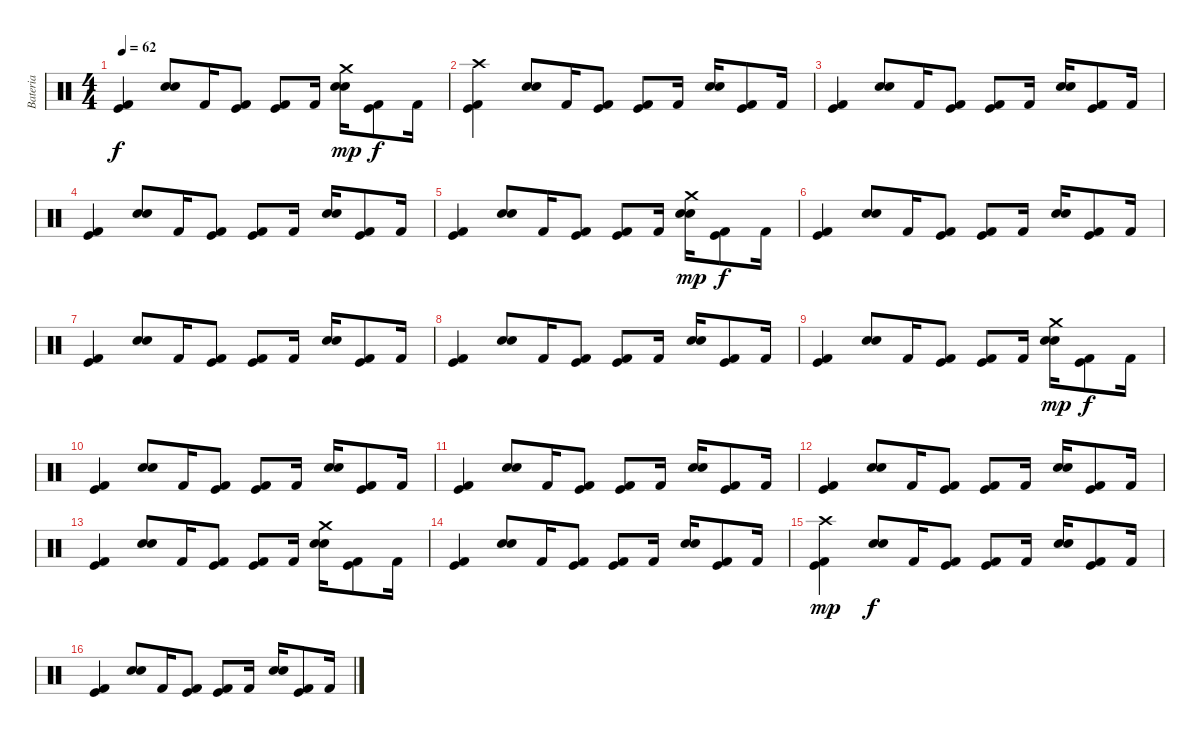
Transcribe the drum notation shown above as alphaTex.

\track ("Bateria" "Bateria") {instrument percussion}
\staff {score}
\articulation defaults
\ts (4 4)
\tempo 62
\clef neutral
\ks c
("Kick (hit)" "Kick (hit) 2").4{dy f} ("Snare (hit) 2" "Electric Snare (hit)").8 "Kick (hit) 2".16 ("Kick (hit)" "Kick (hit) 2").8 ("Kick (hit)" "Kick (hit) 2").8 "Kick (hit) 2".16 ("Crash medium (hit)" "Snare (hit) 2" "Electric Snare (hit)").16{dy mp} ("Kick (hit)" "Kick (hit) 2").8{dy f} "Kick (hit) 2".16 |
("Crash high (hit)" "Kick (hit)" "Kick (hit) 2").4 ("Snare (hit) 2" "Electric Snare (hit)").8 "Kick (hit) 2".16 ("Kick (hit)" "Kick (hit) 2").8 ("Kick (hit)" "Kick (hit) 2").8 "Kick (hit) 2".16 ("Snare (hit) 2" "Electric Snare (hit)").16 ("Kick (hit)" "Kick (hit) 2").8 "Kick (hit) 2".16 |
("Kick (hit)" "Kick (hit) 2").4 ("Snare (hit) 2" "Electric Snare (hit)").8 "Kick (hit) 2".16 ("Kick (hit)" "Kick (hit) 2").8 ("Kick (hit)" "Kick (hit) 2").8 "Kick (hit) 2".16 ("Snare (hit) 2" "Electric Snare (hit)").16 ("Kick (hit)" "Kick (hit) 2").8 "Kick (hit) 2".16 |
("Kick (hit)" "Kick (hit) 2").4 ("Snare (hit) 2" "Electric Snare (hit)").8 "Kick (hit) 2".16 ("Kick (hit)" "Kick (hit) 2").8 ("Kick (hit)" "Kick (hit) 2").8 "Kick (hit) 2".16 ("Snare (hit) 2" "Electric Snare (hit)").16 ("Kick (hit)" "Kick (hit) 2").8 "Kick (hit) 2".16 |
("Kick (hit)" "Kick (hit) 2").4 ("Snare (hit) 2" "Electric Snare (hit)").8 "Kick (hit) 2".16 ("Kick (hit)" "Kick (hit) 2").8 ("Kick (hit)" "Kick (hit) 2").8 "Kick (hit) 2".16 ("Crash medium (hit)" "Snare (hit) 2" "Electric Snare (hit)").16{dy mp} ("Kick (hit)" "Kick (hit) 2").8{dy f} "Kick (hit) 2".16 |
("Kick (hit)" "Kick (hit) 2").4 ("Snare (hit) 2" "Electric Snare (hit)").8 "Kick (hit) 2".16 ("Kick (hit)" "Kick (hit) 2").8 ("Kick (hit)" "Kick (hit) 2").8 "Kick (hit) 2".16 ("Snare (hit) 2" "Electric Snare (hit)").16 ("Kick (hit)" "Kick (hit) 2").8 "Kick (hit) 2".16 |
("Kick (hit)" "Kick (hit) 2").4 ("Snare (hit) 2" "Electric Snare (hit)").8 "Kick (hit) 2".16 ("Kick (hit)" "Kick (hit) 2").8 ("Kick (hit)" "Kick (hit) 2").8 "Kick (hit) 2".16 ("Snare (hit) 2" "Electric Snare (hit)").16 ("Kick (hit)" "Kick (hit) 2").8 "Kick (hit) 2".16 |
("Kick (hit)" "Kick (hit) 2").4 ("Snare (hit) 2" "Electric Snare (hit)").8 "Kick (hit) 2".16 ("Kick (hit)" "Kick (hit) 2").8 ("Kick (hit)" "Kick (hit) 2").8 "Kick (hit) 2".16 ("Snare (hit) 2" "Electric Snare (hit)").16 ("Kick (hit)" "Kick (hit) 2").8 "Kick (hit) 2".16 |
("Kick (hit)" "Kick (hit) 2").4 ("Snare (hit) 2" "Electric Snare (hit)").8 "Kick (hit) 2".16 ("Kick (hit)" "Kick (hit) 2").8 ("Kick (hit)" "Kick (hit) 2").8 "Kick (hit) 2".16 ("Crash medium (hit)" "Snare (hit) 2" "Electric Snare (hit)").16{dy mp} ("Kick (hit)" "Kick (hit) 2").8{dy f} "Kick (hit) 2".16 |
("Kick (hit)" "Kick (hit) 2").4 ("Snare (hit) 2" "Electric Snare (hit)").8 "Kick (hit) 2".16 ("Kick (hit)" "Kick (hit) 2").8 ("Kick (hit)" "Kick (hit) 2").8 "Kick (hit) 2".16 ("Snare (hit) 2" "Electric Snare (hit)").16 ("Kick (hit)" "Kick (hit) 2").8 "Kick (hit) 2".16 |
("Kick (hit)" "Kick (hit) 2").4 ("Snare (hit) 2" "Electric Snare (hit)").8 "Kick (hit) 2".16 ("Kick (hit)" "Kick (hit) 2").8 ("Kick (hit)" "Kick (hit) 2").8 "Kick (hit) 2".16 ("Snare (hit) 2" "Electric Snare (hit)").16 ("Kick (hit)" "Kick (hit) 2").8 "Kick (hit) 2".16 |
("Kick (hit)" "Kick (hit) 2").4 ("Snare (hit) 2" "Electric Snare (hit)").8 "Kick (hit) 2".16 ("Kick (hit)" "Kick (hit) 2").8 ("Kick (hit)" "Kick (hit) 2").8 "Kick (hit) 2".16 ("Snare (hit) 2" "Electric Snare (hit)").16 ("Kick (hit)" "Kick (hit) 2").8 "Kick (hit) 2".16 |
("Kick (hit)" "Kick (hit) 2").4 ("Snare (hit) 2" "Electric Snare (hit)").8 "Kick (hit) 2".16 ("Kick (hit)" "Kick (hit) 2").8 ("Kick (hit)" "Kick (hit) 2").8 "Kick (hit) 2".16 ("Crash medium (hit)" "Snare (hit) 2" "Electric Snare (hit)").16 ("Kick (hit)" "Kick (hit) 2").8 "Kick (hit) 2".16 |
("Kick (hit)" "Kick (hit) 2").4 ("Snare (hit) 2" "Electric Snare (hit)").8 "Kick (hit) 2".16 ("Kick (hit)" "Kick (hit) 2").8 ("Kick (hit)" "Kick (hit) 2").8 "Kick (hit) 2".16 ("Snare (hit) 2" "Electric Snare (hit)").16 ("Kick (hit)" "Kick (hit) 2").8 "Kick (hit) 2".16 |
("Crash high (hit)" "Kick (hit)" "Kick (hit) 2").4{dy mp} ("Snare (hit) 2" "Electric Snare (hit)").8{dy f} "Kick (hit) 2".16 ("Kick (hit)" "Kick (hit) 2").8 ("Kick (hit)" "Kick (hit) 2").8 "Kick (hit) 2".16 ("Snare (hit) 2" "Electric Snare (hit)").16 ("Kick (hit)" "Kick (hit) 2").8 "Kick (hit) 2".16 |
("Kick (hit)" "Kick (hit) 2").4 ("Snare (hit) 2" "Electric Snare (hit)").8 "Kick (hit) 2".16 ("Kick (hit)" "Kick (hit) 2").8 ("Kick (hit)" "Kick (hit) 2").8 "Kick (hit) 2".16 ("Snare (hit) 2" "Electric Snare (hit)").16 ("Kick (hit)" "Kick (hit) 2").8 "Kick (hit) 2".16
